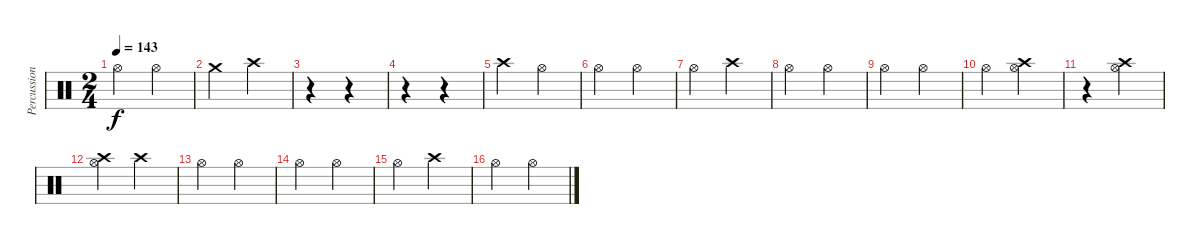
\track ("Percussion2" "Percussion") {instrument percussion}
\staff {score}
\articulation defaults
\ts (2 4)
\tempo 143
\clef neutral
\ks c "Hi-Hat (open)".4{dy f} "Hi-Hat (open)".4
|
"Crash medium (hit)".4 "Crash high (hit)".4 |
r.4 r.4 |
r.4 r.4 |
"Crash high (hit)".4 "Hi-Hat (open)".4 |
"Hi-Hat (open)".4 "Hi-Hat (open)".4 |
"Hi-Hat (open)".4 "Crash high (hit)".4 |
"Hi-Hat (open)".4 "Hi-Hat (open)".4 |
"Hi-Hat (open)".4 "Hi-Hat (open)".4 |
"Hi-Hat (open)".4 ("Crash high (hit)" "Hi-Hat (open)").4 |
r.4 ("Crash high (hit)" "Hi-Hat (open)").4 |
("Crash high (hit)" "Hi-Hat (open)").4 "Crash high (hit)".4 |
"Hi-Hat (open)".4 "Hi-Hat (open)".4 |
"Hi-Hat (open)".4 "Hi-Hat (open)".4 |
"Hi-Hat (open)".4 "Crash high (hit)".4 |
"Hi-Hat (open)".4 "Hi-Hat (open)".4
